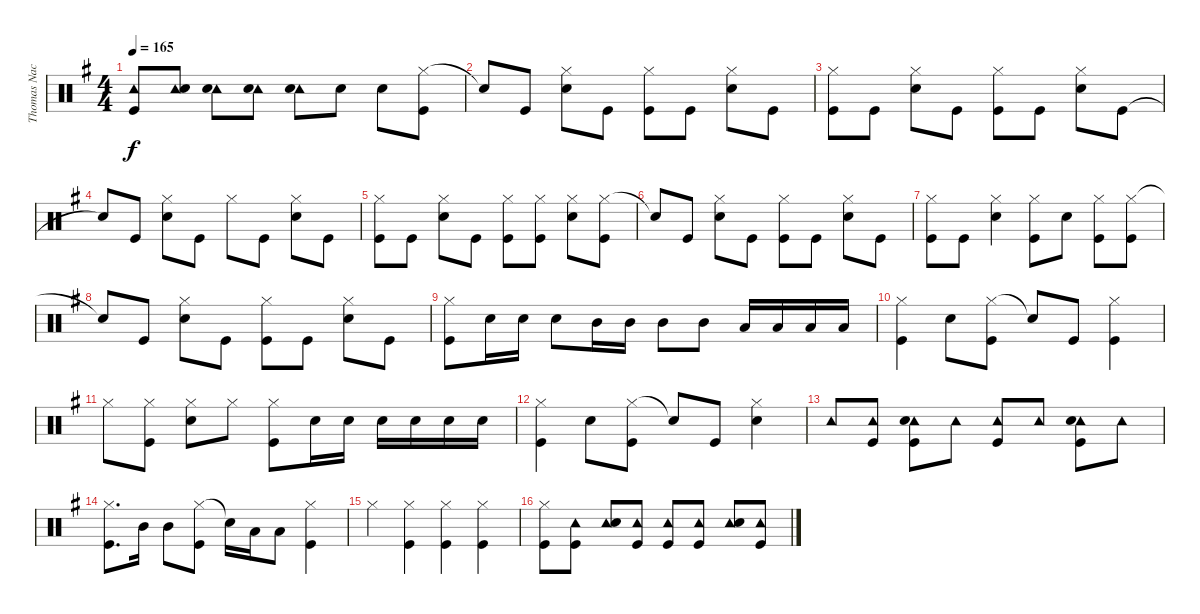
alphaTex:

\track ("Thomas Nack" "Thomas Nac") {instrument percussion}
\staff {score}
\articulation defaults
\ts (4 4)
\tempo 165
\clef neutral
\ks g
("Tambourine (hit)" "Kick (hit)").8{dy f} ("Tambourine (hit)" "Snare (hit) 2").8 ("Tambourine (hit)" "Snare (hit) 2").8 ("Tambourine (hit)" "Snare (hit) 2").8 ("Tambourine (hit)" "Snare (hit) 2").8 "Snare (hit) 2".8 "Snare (hit) 2".8 ("Hi-Hat (closed)" "Kick (hit)").8 |
"Snare (hit)"{t}.8 "Kick (hit)".8 ("Hi-Hat (closed)" "Snare (hit) 2").8 "Kick (hit)".8 ("Hi-Hat (closed)" "Kick (hit)").8 "Kick (hit)".8 ("Hi-Hat (closed)" "Snare (hit) 2").8 "Kick (hit)".8 |
("Hi-Hat (closed)" "Kick (hit)").8 "Kick (hit)".8 ("Hi-Hat (closed)" "Snare (hit) 2").8 "Kick (hit)".8 ("Hi-Hat (closed)" "Kick (hit)").8 "Kick (hit)".8 ("Hi-Hat (closed)" "Snare (hit) 2").8 "Kick (hit)".8 |
"Snare (hit)"{t}.8 "Kick (hit)".8 ("Hi-Hat (closed)" "Snare (hit) 2").8 "Kick (hit)".8 "Hi-Hat (closed)".8 "Kick (hit)".8 ("Hi-Hat (closed)" "Snare (hit) 2").8 "Kick (hit)".8 |
("Hi-Hat (closed)" "Kick (hit)").8 "Kick (hit)".8 ("Hi-Hat (closed)" "Snare (hit) 2").8 "Kick (hit)".8 ("Hi-Hat (closed)" "Kick (hit)").8 ("Hi-Hat (closed)" "Kick (hit)").8 ("Hi-Hat (closed)" "Snare (hit) 2").8 ("Hi-Hat (closed)" "Kick (hit)").8 |
"Snare (hit)"{t}.8 "Kick (hit)".8 ("Hi-Hat (closed)" "Snare (hit) 2").8 "Kick (hit)".8 ("Hi-Hat (closed)" "Kick (hit)").8 "Kick (hit)".8 ("Hi-Hat (closed)" "Snare (hit) 2").8 "Kick (hit)".8 |
("Hi-Hat (closed)" "Kick (hit)").8 "Kick (hit)".8 ("Hi-Hat (closed)" "Snare (hit) 2").4 ("Hi-Hat (closed)" "Kick (hit)").8 "Snare (hit) 2".8 ("Hi-Hat (closed)" "Kick (hit)").8 ("Hi-Hat (closed)" "Kick (hit)").8 |
"Snare (hit)"{t}.8 "Kick (hit)".8 ("Hi-Hat (closed)" "Snare (hit) 2").8 "Kick (hit)".8 ("Hi-Hat (closed)" "Kick (hit)").8 "Kick (hit)".8 ("Hi-Hat (closed)" "Snare (hit) 2").8 "Kick (hit)".8 |
("Hi-Hat (closed)" "Kick (hit)").8 "Snare (hit) 2".16 "Snare (hit) 2".16 "Snare (hit) 2".8 "Mid Tom (hit)".16 "Mid Tom (hit)".16 "Mid Tom (hit)".8 "Mid Tom (hit)".8 "Low Tom (hit)".16 "Low Tom (hit)".16 "Low Tom (hit)".16 "Low Tom (hit)".16 |
("Hi-Hat (closed)" "Kick (hit)").4 "Snare (hit) 2".8 ("Hi-Hat (closed)" "Kick (hit)").8 "Snare (hit)"{t}.8 "Kick (hit)".8 ("Hi-Hat (closed)" "Kick (hit)").4 |
"Hi-Hat (closed)".8 ("Hi-Hat (closed)" "Kick (hit)").8 ("Hi-Hat (closed)" "Snare (hit) 2").8 "Hi-Hat (closed)".8 ("Hi-Hat (closed)" "Kick (hit)").8 "Snare (hit) 2".16 "Snare (hit) 2".16 "Snare (hit) 2".16 "Snare (hit) 2".16 "Snare (hit) 2".16 "Snare (hit) 2".16 |
("Hi-Hat (closed)" "Kick (hit)").4 "Snare (hit) 2".8 ("Hi-Hat (closed)" "Kick (hit)").8 "Snare (hit)"{t}.8 "Kick (hit)".8 ("Hi-Hat (closed)" "Snare (hit) 2").4 |
"Tambourine (hit)".8 ("Tambourine (hit)" "Kick (hit)").8 ("Tambourine (hit)" "Kick (hit)" "Snare (hit) 2").8 "Tambourine (hit)".8 ("Tambourine (hit)" "Kick (hit)").8 "Tambourine (hit)".8 ("Tambourine (hit)" "Kick (hit)" "Snare (hit) 2").8 "Tambourine (hit)".8 |
("Hi-Hat (closed)" "Kick (hit)").8{d} "Mid Tom (hit)".16 "Mid Tom (hit)".8 ("Hi-Hat (closed)" "Kick (hit)").8 "Snare (hit)"{t}.16 "Low Tom (hit)".16 "Low Tom (hit)".8 ("Hi-Hat (closed)" "Kick (hit)").4 |
"Hi-Hat (closed)".4 ("Hi-Hat (closed)" "Kick (hit)").4 ("Hi-Hat (closed)" "Kick (hit)").4 ("Hi-Hat (closed)" "Kick (hit)").4 |
("Hi-Hat (closed)" "Kick (hit)").8 ("Tambourine (hit)" "Kick (hit)").8 ("Tambourine (hit)" "Snare (hit) 2").8 ("Tambourine (hit)" "Kick (hit)").8 ("Tambourine (hit)" "Kick (hit)").8 ("Tambourine (hit)" "Kick (hit)").8 ("Tambourine (hit)" "Snare (hit) 2").8 ("Tambourine (hit)" "Kick (hit)").8
